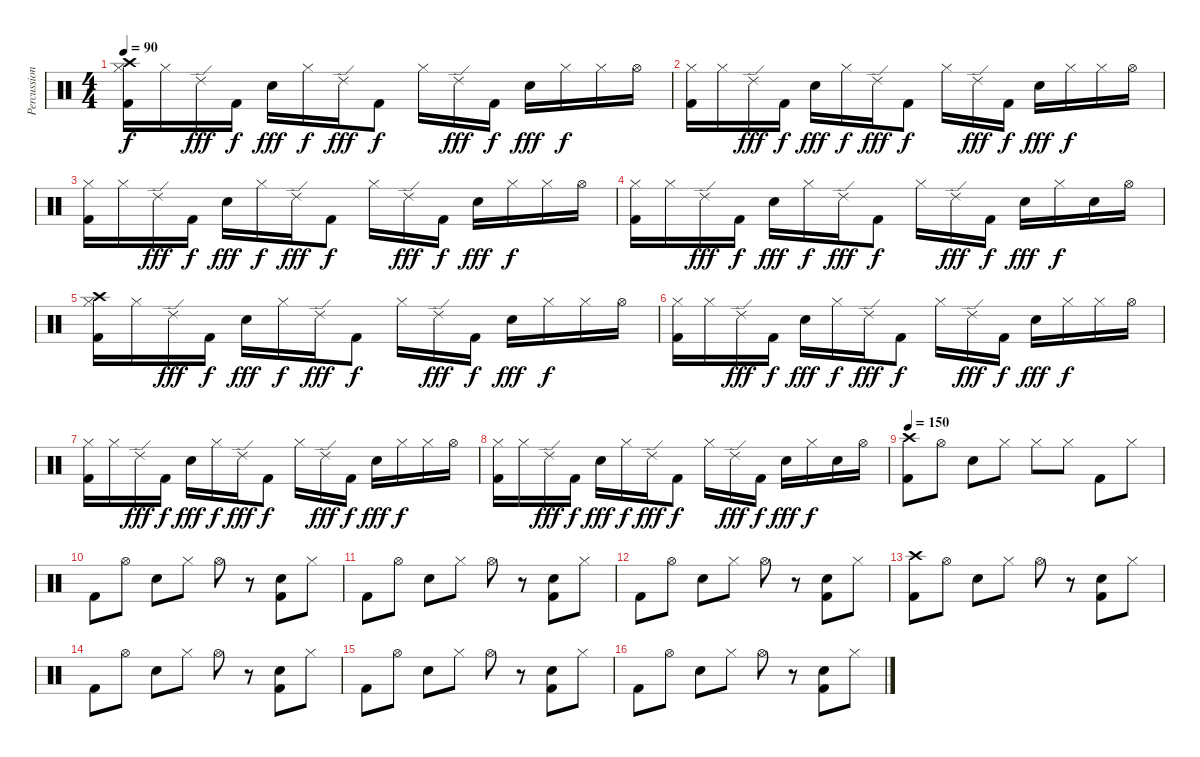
\track ("Percussion" "Percussion") {instrument percussion}
\staff {score}
\articulation defaults
\ts (4 4)
\tempo 90
\clef neutral
\ks c
("Hi-Hat (closed)" "Kick (hit) 2" "Crash high (hit)").16{dy f} "Hi-Hat (closed)".16 "Ride (edge) 2".16{dy fff} "Kick (hit) 2".16{dy f} "Snare (hit) 2".16{dy fff} "Hi-Hat (closed)".16{dy f} "Ride (edge) 2".16{dy fff} "Kick (hit) 2".8{dy f} "Hi-Hat (closed)".16 "Ride (edge) 2".16{dy fff} "Kick (hit) 2".16{dy f} "Snare (hit) 2".16{dy fff} "Hi-Hat (closed)".16{dy f} "Hi-Hat (closed)".16 "Hi-Hat (open)".16 |
("Hi-Hat (closed)" "Kick (hit) 2").16 "Hi-Hat (closed)".16 "Ride (edge) 2".16{dy fff} "Kick (hit) 2".16{dy f} "Snare (hit) 2".16{dy fff} "Hi-Hat (closed)".16{dy f} "Ride (edge) 2".16{dy fff} "Kick (hit) 2".8{dy f} "Hi-Hat (closed)".16 "Ride (edge) 2".16{dy fff} "Kick (hit) 2".16{dy f} "Snare (hit) 2".16{dy fff} "Hi-Hat (closed)".16{dy f} "Hi-Hat (closed)".16 "Hi-Hat (open)".16 |
("Hi-Hat (closed)" "Kick (hit) 2").16 "Hi-Hat (closed)".16 "Ride (edge) 2".16{dy fff} "Kick (hit) 2".16{dy f} "Snare (hit) 2".16{dy fff} "Hi-Hat (closed)".16{dy f} "Ride (edge) 2".16{dy fff} "Kick (hit) 2".8{dy f} "Hi-Hat (closed)".16 "Ride (edge) 2".16{dy fff} "Kick (hit) 2".16{dy f} "Snare (hit) 2".16{dy fff} "Hi-Hat (closed)".16{dy f} "Hi-Hat (closed)".16 "Hi-Hat (open)".16 |
("Hi-Hat (closed)" "Kick (hit) 2").16 "Hi-Hat (closed)".16 "Ride (edge) 2".16{dy fff} "Kick (hit) 2".16{dy f} "Snare (hit) 2".16{dy fff} "Hi-Hat (closed)".16{dy f} "Ride (edge) 2".16{dy fff} "Kick (hit) 2".8{dy f} "Hi-Hat (closed)".16 "Ride (edge) 2".16{dy fff} "Kick (hit) 2".16{dy f} "Snare (hit) 2".16{dy fff} "Hi-Hat (closed)".16{dy f} "Snare (hit) 2".16 "Hi-Hat (open)".16 |
("Hi-Hat (closed)" "Kick (hit) 2" "Crash high (hit)").16 "Hi-Hat (closed)".16 "Ride (edge) 2".16{dy fff} "Kick (hit) 2".16{dy f} "Snare (hit) 2".16{dy fff} "Hi-Hat (closed)".16{dy f} "Ride (edge) 2".16{dy fff} "Kick (hit) 2".8{dy f} "Hi-Hat (closed)".16 "Ride (edge) 2".16{dy fff} "Kick (hit) 2".16{dy f} "Snare (hit) 2".16{dy fff} "Hi-Hat (closed)".16{dy f} "Hi-Hat (closed)".16 "Hi-Hat (open)".16 |
("Hi-Hat (closed)" "Kick (hit) 2").16 "Hi-Hat (closed)".16 "Ride (edge) 2".16{dy fff} "Kick (hit) 2".16{dy f} "Snare (hit) 2".16{dy fff} "Hi-Hat (closed)".16{dy f} "Ride (edge) 2".16{dy fff} "Kick (hit) 2".8{dy f} "Hi-Hat (closed)".16 "Ride (edge) 2".16{dy fff} "Kick (hit) 2".16{dy f} "Snare (hit) 2".16{dy fff} "Hi-Hat (closed)".16{dy f} "Hi-Hat (closed)".16 "Hi-Hat (open)".16 |
("Hi-Hat (closed)" "Kick (hit) 2").16 "Hi-Hat (closed)".16 "Ride (edge) 2".16{dy fff} "Kick (hit) 2".16{dy f} "Snare (hit) 2".16{dy fff} "Hi-Hat (closed)".16{dy f} "Ride (edge) 2".16{dy fff} "Kick (hit) 2".8{dy f} "Hi-Hat (closed)".16 "Ride (edge) 2".16{dy fff} "Kick (hit) 2".16{dy f} "Snare (hit) 2".16{dy fff} "Hi-Hat (closed)".16{dy f} "Hi-Hat (closed)".16 "Hi-Hat (open)".16 |
("Hi-Hat (closed)" "Kick (hit) 2").16 "Hi-Hat (closed)".16 "Ride (edge) 2".16{dy fff} "Kick (hit) 2".16{dy f} "Snare (hit) 2".16{dy fff} "Hi-Hat (closed)".16{dy f} "Ride (edge) 2".16{dy fff} "Kick (hit) 2".8{dy f} "Hi-Hat (closed)".16 "Ride (edge) 2".16{dy fff} "Kick (hit) 2".16{dy f} "Snare (hit) 2".16{dy fff} "Hi-Hat (closed)".16{dy f} "Snare (hit) 2".16 "Hi-Hat (open)".16 |
\tempo 150
("Crash high (hit)" "Kick (hit) 2").8 "Hi-Hat (open)".8 "Snare (hit) 2".8 "Hi-Hat (closed)".8 "Hi-Hat (closed)".8 "Hi-Hat (closed)".8 "Kick (hit) 2".8 "Hi-Hat (closed)".8 |
"Kick (hit) 2".8 "Hi-Hat (open)".8 "Snare (hit) 2".8 "Hi-Hat (closed)".8 "Hi-Hat (open)".8 r.8 ("Snare (hit) 2" "Kick (hit) 2").8 "Hi-Hat (closed)".8 |
"Kick (hit) 2".8 "Hi-Hat (open)".8 "Snare (hit) 2".8 "Hi-Hat (closed)".8 "Hi-Hat (open)".8 r.8 ("Snare (hit) 2" "Kick (hit) 2").8 "Hi-Hat (closed)".8 |
"Kick (hit) 2".8 "Hi-Hat (open)".8 "Snare (hit) 2".8 "Hi-Hat (closed)".8 "Hi-Hat (open)".8 r.8 ("Snare (hit) 2" "Kick (hit) 2").8 "Hi-Hat (closed)".8 |
("Crash high (hit)" "Kick (hit) 2").8 "Hi-Hat (open)".8 "Snare (hit) 2".8 "Hi-Hat (closed)".8 "Hi-Hat (open)".8 r.8 ("Snare (hit) 2" "Kick (hit) 2").8 "Hi-Hat (closed)".8 |
"Kick (hit) 2".8 "Hi-Hat (open)".8 "Snare (hit) 2".8 "Hi-Hat (closed)".8 "Hi-Hat (open)".8 r.8 ("Snare (hit) 2" "Kick (hit) 2").8 "Hi-Hat (closed)".8 |
"Kick (hit) 2".8 "Hi-Hat (open)".8 "Snare (hit) 2".8 "Hi-Hat (closed)".8 "Hi-Hat (open)".8 r.8 ("Snare (hit) 2" "Kick (hit) 2").8 "Hi-Hat (closed)".8 |
"Kick (hit) 2".8 "Hi-Hat (open)".8 "Snare (hit) 2".8 "Hi-Hat (closed)".8 "Hi-Hat (open)".8 r.8 ("Snare (hit) 2" "Kick (hit) 2").8 "Hi-Hat (closed)".8
